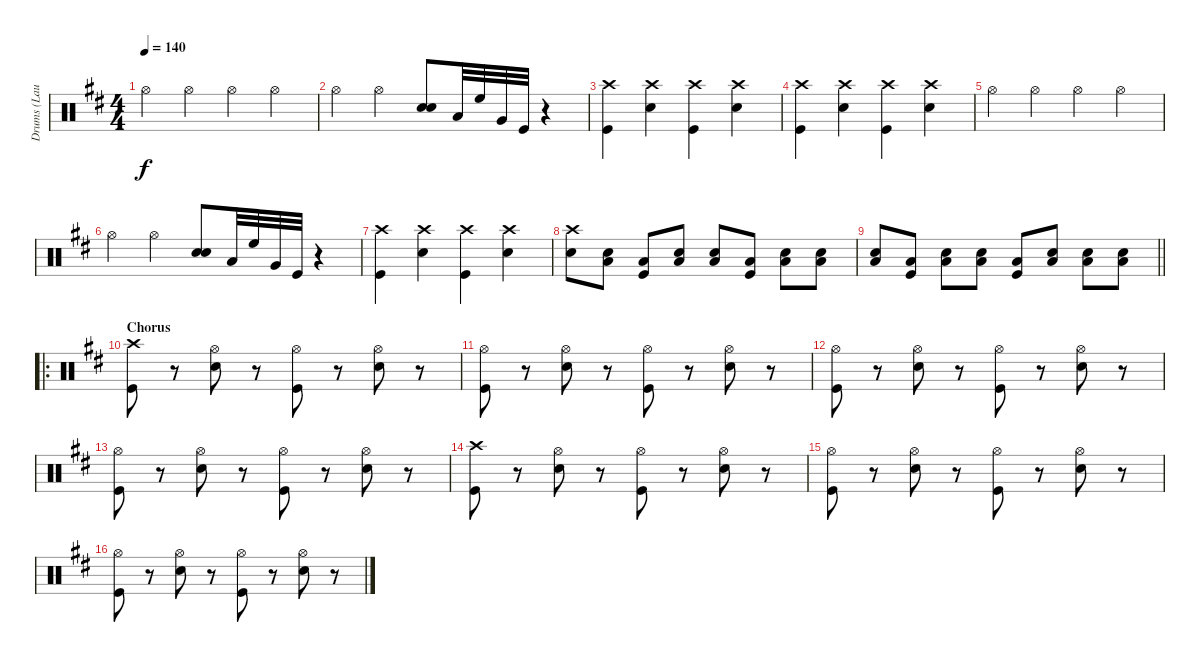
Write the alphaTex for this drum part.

\track ("Drums (Laust Sonne)" "Drums (Lau") {instrument percussion}
\staff {score}
\articulation defaults
\ts (4 4)
\tempo 140
\clef neutral
\ks d "Hi-Hat (open)".4{dy f} "Hi-Hat (open)".4 "Hi-Hat (open)".4 "Hi-Hat (open)".4
|
"Hi-Hat (open)".4 "Hi-Hat (open)".4 ("Snare (hit) 2" "Snare (hit) 2").8 "Low Tom (hit)".32 "High Floor Tom (hit)".32 "Very Low Tom (hit)".32 "Kick (hit)".32 r.4 |
("Crash high (hit)" "Kick (hit)").4 ("Crash high (hit)" "Snare (hit) 2").4 ("Crash high (hit)" "Kick (hit)").4 ("Crash high (hit)" "Snare (hit) 2").4 |
("Crash high (hit)" "Kick (hit)").4 ("Crash high (hit)" "Snare (hit) 2").4 ("Crash high (hit)" "Kick (hit)").4 ("Crash high (hit)" "Snare (hit) 2").4 |
"Hi-Hat (open)".4 "Hi-Hat (open)".4 "Hi-Hat (open)".4 "Hi-Hat (open)".4 |
"Hi-Hat (open)".4 "Hi-Hat (open)".4 ("Snare (hit) 2" "Snare (hit) 2").8 "Low Tom (hit)".32 "High Floor Tom (hit)".32 "Very Low Tom (hit)".32 "Kick (hit)".32 r.4 |
("Crash high (hit)" "Kick (hit)").4 ("Crash high (hit)" "Snare (hit) 2").4 ("Crash high (hit)" "Kick (hit)").4 ("Crash high (hit)" "Snare (hit) 2").4 |
("Crash high (hit)" "Snare (hit) 2").8 ("Low Floor Tom (hit)" "Snare (hit) 2").8 ("Low Floor Tom (hit)" "Kick (hit)").8 ("Low Floor Tom (hit)" "Snare (hit) 2").8 ("Low Floor Tom (hit)" "Snare (hit) 2").8 ("Low Floor Tom (hit)" "Kick (hit)").8 ("Low Floor Tom (hit)" "Snare (hit) 2").8 ("Low Floor Tom (hit)" "Snare (hit) 2").8 |
\barLineRight lightlight
("Low Floor Tom (hit)" "Snare (hit) 2").8 ("Low Floor Tom (hit)" "Kick (hit)").8 ("Low Floor Tom (hit)" "Snare (hit) 2").8 ("Low Floor Tom (hit)" "Snare (hit) 2").8 ("Low Floor Tom (hit)" "Kick (hit)").8 ("Low Floor Tom (hit)" "Snare (hit) 2").8 ("Low Floor Tom (hit)" "Snare (hit) 2").8 ("Low Floor Tom (hit)" "Snare (hit) 2").8 |
\ro
\section ("" "Chorus")
("Crash high (hit)" "Kick (hit)").8 r.8 ("Hi-Hat (open)" "Snare (hit) 2").8 r.8 ("Hi-Hat (open)" "Kick (hit)").8 r.8 ("Hi-Hat (open)" "Snare (hit) 2").8 r.8 |
("Hi-Hat (open)" "Kick (hit)").8 r.8 ("Hi-Hat (open)" "Snare (hit) 2").8 r.8 ("Hi-Hat (open)" "Kick (hit)").8 r.8 ("Hi-Hat (open)" "Snare (hit) 2").8 r.8 |
("Hi-Hat (open)" "Kick (hit)").8 r.8 ("Hi-Hat (open)" "Snare (hit) 2").8 r.8 ("Hi-Hat (open)" "Kick (hit)").8 r.8 ("Hi-Hat (open)" "Snare (hit) 2").8 r.8 |
("Hi-Hat (open)" "Kick (hit)").8 r.8 ("Hi-Hat (open)" "Snare (hit) 2").8 r.8 ("Hi-Hat (open)" "Kick (hit)").8 r.8 ("Hi-Hat (open)" "Snare (hit) 2").8 r.8 |
("Crash high (hit)" "Kick (hit)").8 r.8 ("Hi-Hat (open)" "Snare (hit) 2").8 r.8 ("Hi-Hat (open)" "Kick (hit)").8 r.8 ("Hi-Hat (open)" "Snare (hit) 2").8 r.8 |
("Hi-Hat (open)" "Kick (hit)").8 r.8 ("Hi-Hat (open)" "Snare (hit) 2").8 r.8 ("Hi-Hat (open)" "Kick (hit)").8 r.8 ("Hi-Hat (open)" "Snare (hit) 2").8 r.8 |
("Hi-Hat (open)" "Kick (hit)").8 r.8 ("Hi-Hat (open)" "Snare (hit) 2").8 r.8 ("Hi-Hat (open)" "Kick (hit)").8 r.8 ("Hi-Hat (open)" "Snare (hit) 2").8 r.8
